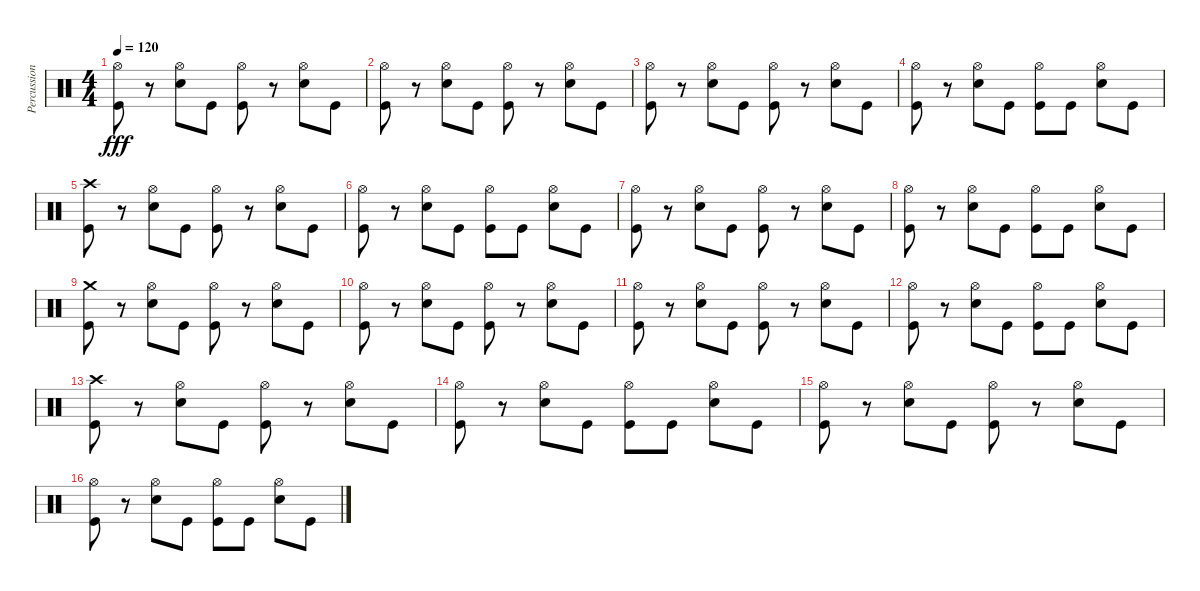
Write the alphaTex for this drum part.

\track ("Percussions" "Percussion") {instrument percussion}
\staff {score}
\articulation defaults
\ts (4 4)
\tempo 120
\clef neutral
\ks c
("Hi-Hat (open)" "Kick (hit)").8{dy fff} r.8 ("Hi-Hat (open)" "Snare (hit) 2").8 "Kick (hit)".8 ("Hi-Hat (open)" "Kick (hit)").8 r.8 ("Hi-Hat (open)" "Snare (hit) 2").8 "Kick (hit)".8 |
("Hi-Hat (open)" "Kick (hit)").8 r.8 ("Hi-Hat (open)" "Snare (hit) 2").8 "Kick (hit)".8 ("Hi-Hat (open)" "Kick (hit)").8 r.8 ("Hi-Hat (open)" "Snare (hit) 2").8 "Kick (hit)".8 |
("Hi-Hat (open)" "Kick (hit)").8 r.8 ("Hi-Hat (open)" "Snare (hit) 2").8 "Kick (hit)".8 ("Hi-Hat (open)" "Kick (hit)").8 r.8 ("Hi-Hat (open)" "Snare (hit) 2").8 "Kick (hit)".8 |
("Hi-Hat (open)" "Kick (hit)").8 r.8 ("Hi-Hat (open)" "Snare (hit) 2").8 "Kick (hit)".8 ("Hi-Hat (open)" "Kick (hit)").8 "Kick (hit)".8 ("Hi-Hat (open)" "Snare (hit) 2").8 "Kick (hit)".8 |
("Crash high (hit)" "Kick (hit)").8 r.8 ("Hi-Hat (open)" "Snare (hit) 2").8 "Kick (hit)".8 ("Hi-Hat (open)" "Kick (hit)").8 r.8 ("Hi-Hat (open)" "Snare (hit) 2").8 "Kick (hit)".8 |
("Hi-Hat (open)" "Kick (hit)").8 r.8 ("Hi-Hat (open)" "Snare (hit) 2").8 "Kick (hit)".8 ("Hi-Hat (open)" "Kick (hit)").8 "Kick (hit)".8 ("Hi-Hat (open)" "Snare (hit) 2").8 "Kick (hit)".8 |
("Hi-Hat (open)" "Kick (hit)").8 r.8 ("Hi-Hat (open)" "Snare (hit) 2").8 "Kick (hit)".8 ("Hi-Hat (open)" "Kick (hit)").8 r.8 ("Hi-Hat (open)" "Snare (hit) 2").8 "Kick (hit)".8 |
("Hi-Hat (open)" "Kick (hit)").8 r.8 ("Hi-Hat (open)" "Snare (hit) 2").8 "Kick (hit)".8 ("Hi-Hat (open)" "Kick (hit)").8 "Kick (hit)".8 ("Hi-Hat (open)" "Snare (hit) 2").8 "Kick (hit)".8 |
("Crash medium (hit)" "Kick (hit)").8 r.8 ("Hi-Hat (open)" "Snare (hit) 2").8 "Kick (hit)".8 ("Hi-Hat (open)" "Kick (hit)").8 r.8 ("Hi-Hat (open)" "Snare (hit) 2").8 "Kick (hit)".8 |
("Hi-Hat (open)" "Kick (hit)").8 r.8 ("Hi-Hat (open)" "Snare (hit) 2").8 "Kick (hit)".8 ("Hi-Hat (open)" "Kick (hit)").8 r.8 ("Hi-Hat (open)" "Snare (hit) 2").8 "Kick (hit)".8 |
("Hi-Hat (open)" "Kick (hit)").8 r.8 ("Hi-Hat (open)" "Snare (hit) 2").8 "Kick (hit)".8 ("Hi-Hat (open)" "Kick (hit)").8 r.8 ("Hi-Hat (open)" "Snare (hit) 2").8 "Kick (hit)".8 |
("Hi-Hat (open)" "Kick (hit)").8 r.8 ("Hi-Hat (open)" "Snare (hit) 2").8 "Kick (hit)".8 ("Hi-Hat (open)" "Kick (hit)").8 "Kick (hit)".8 ("Hi-Hat (open)" "Snare (hit) 2").8 "Kick (hit)".8 |
("Crash high (hit)" "Kick (hit)").8 r.8 ("Hi-Hat (open)" "Snare (hit) 2").8 "Kick (hit)".8 ("Hi-Hat (open)" "Kick (hit)").8 r.8 ("Hi-Hat (open)" "Snare (hit) 2").8 "Kick (hit)".8 |
("Hi-Hat (open)" "Kick (hit)").8 r.8 ("Hi-Hat (open)" "Snare (hit) 2").8 "Kick (hit)".8 ("Hi-Hat (open)" "Kick (hit)").8 "Kick (hit)".8 ("Hi-Hat (open)" "Snare (hit) 2").8 "Kick (hit)".8 |
("Hi-Hat (open)" "Kick (hit)").8 r.8 ("Hi-Hat (open)" "Snare (hit) 2").8 "Kick (hit)".8 ("Hi-Hat (open)" "Kick (hit)").8 r.8 ("Hi-Hat (open)" "Snare (hit) 2").8 "Kick (hit)".8 |
("Hi-Hat (open)" "Kick (hit)").8 r.8 ("Hi-Hat (open)" "Snare (hit) 2").8 "Kick (hit)".8 ("Hi-Hat (open)" "Kick (hit)").8 "Kick (hit)".8 ("Hi-Hat (open)" "Snare (hit) 2").8 "Kick (hit)".8
